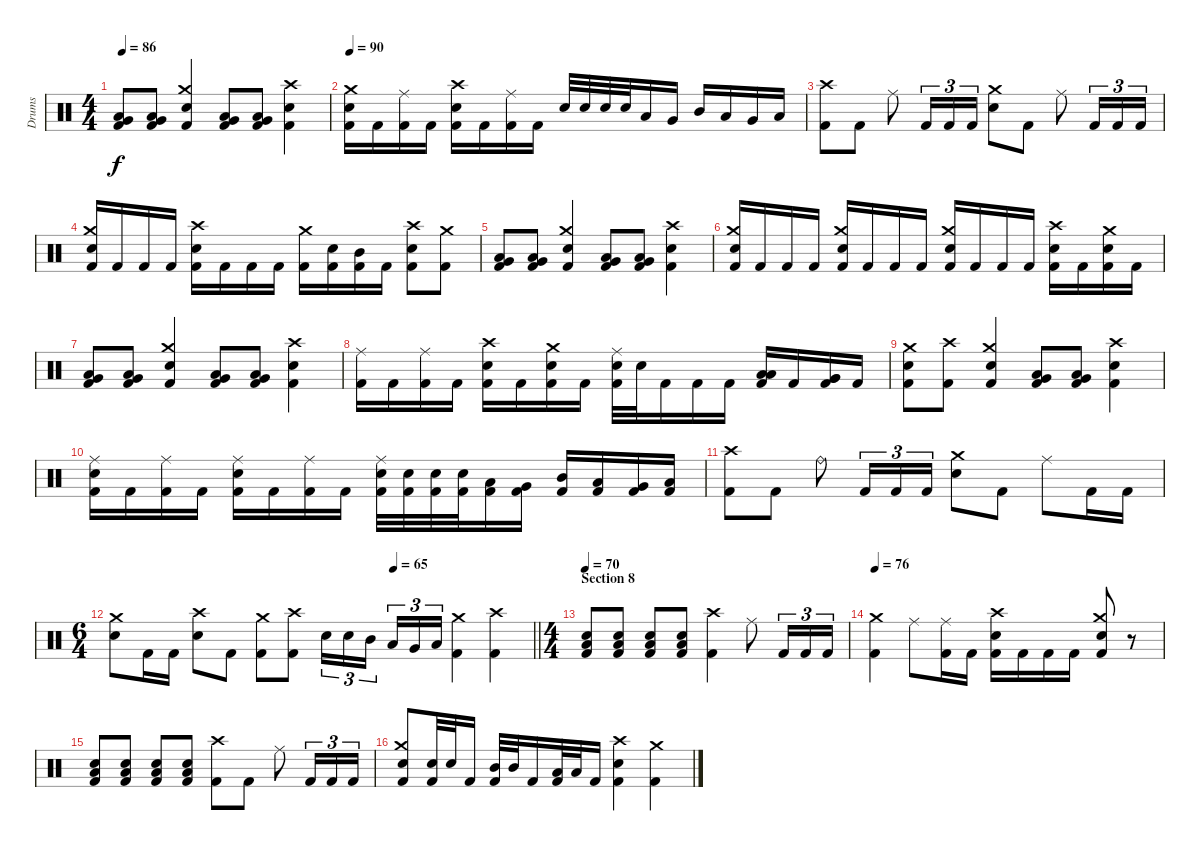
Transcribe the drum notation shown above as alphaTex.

\track ("Drums" "Drums") {instrument percussion}
\staff {score}
\articulation defaults
\ts (4 4)
\tempo 86
\clef neutral
\ks c
("Low Tom (hit)" "Very Low Tom (hit)" "Kick (hit) 2").8{dy f} ("Very Low Tom (hit)" "Low Floor Tom (hit)" "Kick (hit) 2").8 ("Crash medium (hit)" "Electric Snare (hit)" "Kick (hit) 2").4 ("Low Tom (hit)" "Very Low Tom (hit)" "Kick (hit) 2").8 ("Very Low Tom (hit)" "Low Floor Tom (hit)" "Kick (hit) 2").8 ("Crash high (hit)" "Electric Snare (hit)" "Kick (hit) 2").4 |
\tempo 90
("Crash medium (hit)" "Electric Snare (hit)" "Kick (hit) 2").16 "Kick (hit) 2".16 ("Ride (middle)" "Kick (hit) 2").16 "Kick (hit) 2".16 ("Crash high (hit)" "Electric Snare (hit)" "Kick (hit) 2").16 "Kick (hit) 2".16 ("Ride (middle)" "Kick (hit) 2").16 "Kick (hit) 2".16 "Electric Snare (hit)".32 "Electric Snare (hit)".32 "Electric Snare (hit)".32 "Electric Snare (hit)".32 "Low Tom (hit)".16 "Very Low Tom (hit)".16 "Mid Tom (hit)".16 "Low Tom (hit)".16 "Very Low Tom (hit)".16 "Low Floor Tom (hit)".16 |
("Crash high (hit)" "Kick (hit) 2").8 "Kick (hit) 2".8 "Ride (middle)".8 "Kick (hit) 2".16{tu (3 2)} "Kick (hit) 2".16{tu (3 2)} "Kick (hit) 2".16{tu (3 2)} ("Crash medium (hit)" "Electric Snare (hit)").8 "Kick (hit) 2".8 "Ride (middle)".8 "Kick (hit) 2".16{tu (3 2)} "Kick (hit) 2".16{tu (3 2)} "Kick (hit) 2".16{tu (3 2)} |
("Crash medium (hit)" "Electric Snare (hit)" "Kick (hit) 2").16 "Kick (hit) 2".16 "Kick (hit) 2".16 "Kick (hit) 2".16 ("Crash high (hit)" "Electric Snare (hit)" "Kick (hit) 2").16 "Kick (hit) 2".16 "Kick (hit) 2".16 "Kick (hit) 2".16 ("Crash medium (hit)" "Kick (hit) 2").16 ("Electric Snare (hit)" "Kick (hit) 2").16 ("Mid Tom (hit)" "Kick (hit) 2").16 "Kick (hit) 2".16 ("Crash high (hit)" "Electric Snare (hit)" "Kick (hit) 2").8 ("Crash medium (hit)" "Kick (hit) 2").8 |
("Low Tom (hit)" "Very Low Tom (hit)" "Kick (hit) 2").8 ("Very Low Tom (hit)" "Low Floor Tom (hit)" "Kick (hit) 2").8 ("Crash medium (hit)" "Electric Snare (hit)" "Kick (hit) 2").4 ("Low Tom (hit)" "Very Low Tom (hit)" "Kick (hit) 2").8 ("Very Low Tom (hit)" "Low Floor Tom (hit)" "Kick (hit) 2").8 ("Crash high (hit)" "Electric Snare (hit)" "Kick (hit) 2").4 |
("Crash medium (hit)" "Electric Snare (hit)" "Kick (hit) 2").16 "Kick (hit) 2".16 "Kick (hit) 2".16 "Kick (hit) 2".16 ("Crash medium (hit)" "Electric Snare (hit)" "Kick (hit) 2").16 "Kick (hit) 2".16 "Kick (hit) 2".16 "Kick (hit) 2".16 ("Crash medium (hit)" "Electric Snare (hit)" "Kick (hit) 2").16 "Kick (hit) 2".16 "Kick (hit) 2".16 "Kick (hit) 2".16 ("Crash high (hit)" "Electric Snare (hit)" "Kick (hit) 2").16 "Kick (hit) 2".16 ("Crash medium (hit)" "Electric Snare (hit)" "Kick (hit) 2").16 "Kick (hit) 2".16 |
("Low Tom (hit)" "Very Low Tom (hit)" "Kick (hit) 2").8 ("Very Low Tom (hit)" "Low Floor Tom (hit)" "Kick (hit) 2").8 ("Crash medium (hit)" "Electric Snare (hit)" "Kick (hit) 2").4 ("Low Tom (hit)" "Very Low Tom (hit)" "Kick (hit) 2").8 ("Very Low Tom (hit)" "Low Floor Tom (hit)" "Kick (hit) 2").8 ("Crash high (hit)" "Electric Snare (hit)" "Kick (hit) 2").4 |
("Ride (middle)" "Kick (hit) 2").16 "Kick (hit) 2".16 ("Ride (middle)" "Kick (hit) 2").16 "Kick (hit) 2".16 ("Crash high (hit)" "Electric Snare (hit)" "Kick (hit) 2").16 "Kick (hit) 2".16 ("Crash medium (hit)" "Electric Snare (hit)" "Kick (hit) 2").16 "Kick (hit) 2".16 ("Ride (middle)" "Electric Snare (hit)" "Kick (hit) 2").32 "Electric Snare (hit)".32 "Kick (hit) 2".16 "Kick (hit) 2".16 "Kick (hit) 2".16 ("Low Tom (hit)" "Low Tom (hit)" "Kick (hit) 2").16 "Kick (hit) 2".16 ("Very Low Tom (hit)" "Very Low Tom (hit)" "Kick (hit) 2").16 "Kick (hit) 2".16 |
("Crash medium (hit)" "Electric Snare (hit)" "Kick (hit) 2").8 ("Crash high (hit)" "Kick (hit) 2").8 ("Crash medium (hit)" "Electric Snare (hit)" "Kick (hit) 2").4 ("Low Tom (hit)" "Very Low Tom (hit)" "Kick (hit) 2").8 ("Very Low Tom (hit)" "Low Floor Tom (hit)" "Kick (hit) 2").8 ("Crash high (hit)" "Electric Snare (hit)" "Kick (hit) 2").4 |
("Ride (middle)" "Electric Snare (hit)" "Kick (hit) 2").16 "Kick (hit) 2".16 ("Ride (middle)" "Kick (hit) 2").16 "Kick (hit) 2".16 ("Ride (middle)" "Electric Snare (hit)" "Kick (hit) 2").16 "Kick (hit) 2".16 ("Ride (middle)" "Kick (hit) 2").16 "Kick (hit) 2".16 ("Ride (middle)" "Electric Snare (hit)" "Kick (hit) 2").32 ("Electric Snare (hit)" "Kick (hit) 2").32 ("Electric Snare (hit)" "Kick (hit) 2").32 ("Electric Snare (hit)" "Kick (hit) 2").32 ("Low Tom (hit)" "Kick (hit) 2").16 ("Very Low Tom (hit)" "Kick (hit) 2").16 ("Mid Tom (hit)" "Kick (hit) 2").16 ("Low Tom (hit)" "Kick (hit) 2").16 ("Very Low Tom (hit)" "Kick (hit) 2").16 ("Low Floor Tom (hit)" "Kick (hit) 2").16 |
("Crash high (hit)" "Kick (hit) 2").8 "Kick (hit) 2".8 "Ride (bell)".8 "Kick (hit) 2".16{tu (3 2)} "Kick (hit) 2".16{tu (3 2)} "Kick (hit) 2".16{tu (3 2)} ("Crash medium (hit)" "Electric Snare (hit)").8 "Kick (hit) 2".8 "Ride (middle)".8 "Kick (hit) 2".16 "Kick (hit) 2".16 |
\ts (6 4)
\tempo (65 0.6666666666666666)
\barLineRight lightlight
("Crash medium (hit)" "Electric Snare (hit)").8 "Kick (hit) 2".16 "Kick (hit) 2".16 ("Crash high (hit)" "Electric Snare (hit)").8 "Kick (hit) 2".8 ("Crash medium (hit)" "Kick (hit) 2").8 ("Crash high (hit)" "Kick (hit) 2").8 "Electric Snare (hit)".16{tu (3 2)} "Electric Snare (hit)".16{tu (3 2)} "Mid Tom (hit)".16{tu (3 2) beam splitsecondary} "Low Tom (hit)".16{tu (3 2)} "Very Low Tom (hit)".16{tu (3 2)} "Low Floor Tom (hit)".16{tu (3 2)} ("Crash medium (hit)" "Kick (hit) 2").4 ("Crash high (hit)" "Kick (hit) 2").4 |
\ts (4 4)
\section ("" "Section 8")
\tempo 70
("Low Floor Tom (hit)" "Electric Snare (hit)" "Kick (hit) 2").8 ("Low Floor Tom (hit)" "Electric Snare (hit)" "Kick (hit) 2").8 ("Low Floor Tom (hit)" "Electric Snare (hit)" "Kick (hit) 2").8 ("Low Floor Tom (hit)" "Electric Snare (hit)" "Kick (hit) 2").8 ("Crash high (hit)" "Kick (hit) 2").4 "Ride (middle)".8 "Kick (hit) 2".16{tu (3 2)} "Kick (hit) 2".16{tu (3 2)} "Kick (hit) 2".16{tu (3 2)} |
\tempo 76
("Crash medium (hit)" "Kick (hit) 2").4 "Ride (middle)".8 ("Ride (middle)" "Kick (hit) 2").16 "Kick (hit) 2".16 ("Crash high (hit)" "Electric Snare (hit)" "Kick (hit) 2").16 "Kick (hit) 2".16 "Kick (hit) 2".16 "Kick (hit) 2".16 ("Crash medium (hit)" "Electric Snare (hit)" "Kick (hit) 2").8 r.8 |
("Low Floor Tom (hit)" "Electric Snare (hit)" "Kick (hit) 2").8 ("Low Floor Tom (hit)" "Electric Snare (hit)" "Kick (hit) 2").8 ("Low Floor Tom (hit)" "Electric Snare (hit)" "Kick (hit) 2").8 ("Low Floor Tom (hit)" "Electric Snare (hit)" "Kick (hit) 2").8 ("Crash high (hit)" "Kick (hit) 2").8 "Kick (hit) 2".8 "Ride (middle)".8 "Kick (hit) 2".16{tu (3 2)} "Kick (hit) 2".16{tu (3 2)} "Kick (hit) 2".16{tu (3 2)} |
("Crash medium (hit)" "Electric Snare (hit)" "Kick (hit) 2").8 ("Electric Snare (hit)" "Kick (hit) 2").32 "Electric Snare (hit)".32 "Kick (hit) 2".16 ("Mid Tom (hit)" "Kick (hit) 2").32 "Mid Tom (hit)".32 "Kick (hit) 2".16 ("Low Tom (hit)" "Kick (hit) 2").32 "Low Tom (hit)".32 "Kick (hit) 2".16 ("Crash high (hit)" "Electric Snare (hit)" "Kick (hit) 2").4 ("Crash medium (hit)" "Kick (hit) 2").4
